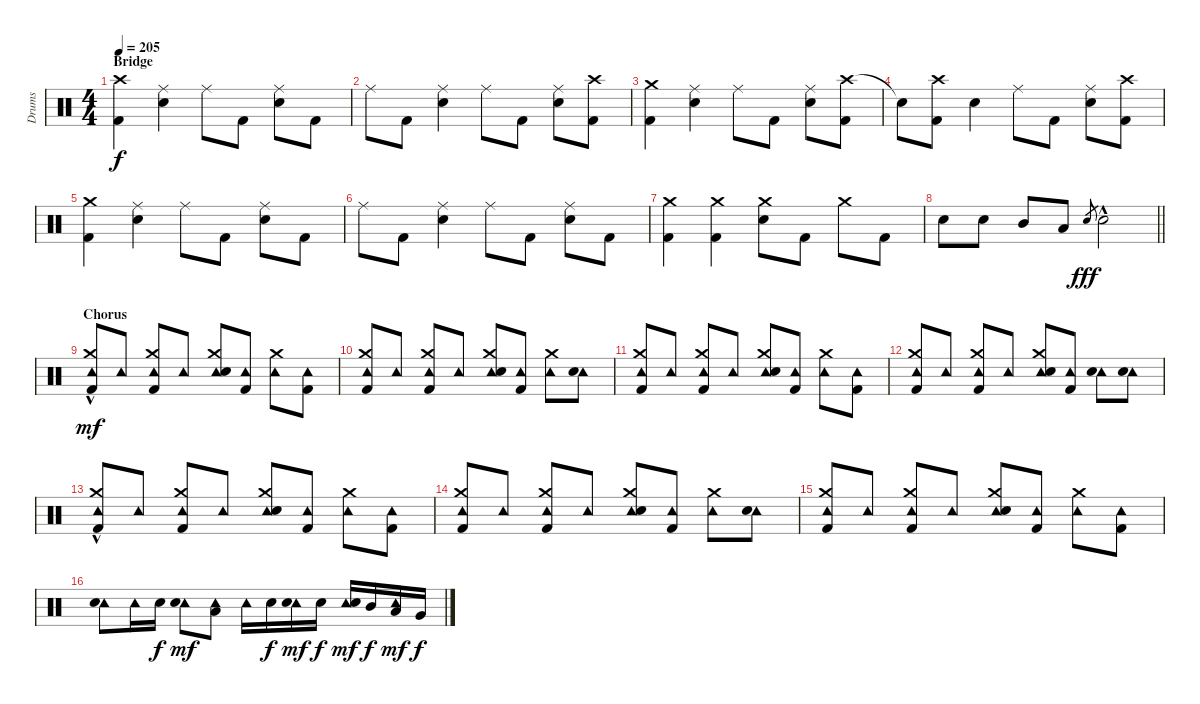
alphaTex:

\track ("Drums" "Drums") {instrument percussion}
\staff {score}
\articulation defaults
\ts (4 4)
\section ("" "Bridge")
\tempo 205
\clef neutral
\ks c
("Crash high (hit)" "Kick (hit) 2").4{dy f} ("Ride (middle)" "Electric Snare (hit)").4 "Ride (middle)".8 "Kick (hit) 2".8 ("Ride (middle)" "Electric Snare (hit)").8 "Kick (hit) 2".8 |
"Ride (middle)".8 "Kick (hit) 2".8 ("Ride (middle)" "Electric Snare (hit)").4 "Ride (middle)".8 "Kick (hit) 2".8 ("Ride (middle)" "Electric Snare (hit)").8 ("Crash high (hit)" "Kick (hit) 2").8 |
("Crash medium (hit)" "Kick (hit) 2").4 ("Ride (middle)" "Electric Snare (hit)").4 "Ride (middle)".8 "Kick (hit) 2".8 ("Ride (middle)" "Electric Snare (hit)").8 ("Crash high (hit)" "Kick (hit) 2").8 |
"Snare (hit)"{t}.8 ("Crash high (hit)" "Kick (hit) 2").8 "Electric Snare (hit)".4 "Ride (middle)".8 "Kick (hit) 2".8 ("Ride (middle)" "Electric Snare (hit)").8 ("Crash high (hit)" "Kick (hit) 2").8 |
("Crash medium (hit)" "Kick (hit) 2").4 ("Ride (middle)" "Electric Snare (hit)").4 "Ride (middle)".8 "Kick (hit) 2".8 ("Ride (middle)" "Electric Snare (hit)").8 "Kick (hit) 2".8 |
"Ride (middle)".8 "Kick (hit) 2".8 ("Ride (middle)" "Electric Snare (hit)").4 "Ride (middle)".8 "Kick (hit) 2".8 ("Ride (middle)" "Electric Snare (hit)").8 "Kick (hit) 2".8 |
("Crash medium (hit)" "Kick (hit) 2").4 ("Crash medium (hit)" "Kick (hit) 2").4 ("Crash medium (hit)" "Electric Snare (hit)").8 "Kick (hit) 2".8 "Crash medium (hit)".8 "Kick (hit) 2".8 |
\barLineRight lightlight "Electric Snare (hit)".8 "Electric Snare (hit)".8 "Mid Tom (hit)".8 "Low Tom (hit)".8 "Electric Snare (hit)".8{gr dy fff} "Electric Snare (hit)"{hac}.2
|
\section ("" "Chorus")
("Crash medium (hit)"{hac} "Tambourine (hit)" "Kick (hit) 2").8{dy mf} "Tambourine (hit)".8 ("Crash medium (hit)" "Tambourine (hit)" "Kick (hit) 2").8 "Tambourine (hit)".8 ("Crash medium (hit)" "Tambourine (hit)" "Electric Snare (hit)").8 ("Tambourine (hit)" "Kick (hit) 2").8 ("Crash medium (hit)" "Tambourine (hit)").8 ("Tambourine (hit)" "Kick (hit) 2").8 |
("Crash medium (hit)" "Tambourine (hit)" "Kick (hit) 2").8 "Tambourine (hit)".8 ("Crash medium (hit)" "Tambourine (hit)" "Kick (hit) 2").8 "Tambourine (hit)".8 ("Crash medium (hit)" "Tambourine (hit)" "Electric Snare (hit)").8 ("Tambourine (hit)" "Kick (hit) 2").8 ("Crash medium (hit)" "Tambourine (hit)").8 ("Tambourine (hit)" "Electric Snare (hit)").8 |
("Crash medium (hit)" "Tambourine (hit)" "Kick (hit) 2").8 "Tambourine (hit)".8 ("Crash medium (hit)" "Tambourine (hit)" "Kick (hit) 2").8 "Tambourine (hit)".8 ("Crash medium (hit)" "Tambourine (hit)" "Electric Snare (hit)").8 ("Tambourine (hit)" "Kick (hit) 2").8 ("Crash medium (hit)" "Tambourine (hit)").8 ("Tambourine (hit)" "Kick (hit) 2").8 |
("Crash medium (hit)" "Tambourine (hit)" "Kick (hit) 2").8 "Tambourine (hit)".8 ("Crash medium (hit)" "Tambourine (hit)" "Kick (hit) 2").8 "Tambourine (hit)".8 ("Crash medium (hit)" "Tambourine (hit)" "Electric Snare (hit)").8 ("Tambourine (hit)" "Kick (hit) 2").8 ("Tambourine (hit)" "Electric Snare (hit)").8 ("Tambourine (hit)" "Electric Snare (hit)").8 |
("Crash medium (hit)"{hac} "Tambourine (hit)" "Kick (hit) 2").8 "Tambourine (hit)".8 ("Crash medium (hit)" "Tambourine (hit)" "Kick (hit) 2").8 "Tambourine (hit)".8 ("Crash medium (hit)" "Tambourine (hit)" "Electric Snare (hit)").8 ("Tambourine (hit)" "Kick (hit) 2").8 ("Crash medium (hit)" "Tambourine (hit)").8 ("Tambourine (hit)" "Kick (hit) 2").8 |
("Crash medium (hit)" "Tambourine (hit)" "Kick (hit) 2").8 "Tambourine (hit)".8 ("Crash medium (hit)" "Tambourine (hit)" "Kick (hit) 2").8 "Tambourine (hit)".8 ("Crash medium (hit)" "Tambourine (hit)" "Electric Snare (hit)").8 ("Tambourine (hit)" "Kick (hit) 2").8 ("Crash medium (hit)" "Tambourine (hit)").8 ("Tambourine (hit)" "Electric Snare (hit)").8 |
("Crash medium (hit)" "Tambourine (hit)" "Kick (hit) 2").8 "Tambourine (hit)".8 ("Crash medium (hit)" "Tambourine (hit)" "Kick (hit) 2").8 "Tambourine (hit)".8 ("Crash medium (hit)" "Tambourine (hit)" "Electric Snare (hit)").8 ("Tambourine (hit)" "Kick (hit) 2").8 ("Crash medium (hit)" "Tambourine (hit)").8 ("Tambourine (hit)" "Kick (hit) 2").8 |
("Tambourine (hit)" "Electric Snare (hit)").8 "Tambourine (hit)".16 "Electric Snare (hit)".16{dy f} ("Tambourine (hit)" "Electric Snare (hit)").8{dy mf} ("Tambourine (hit)" "Low Tom (hit)").8 "Tambourine (hit)".16 "Electric Snare (hit)".16{dy f} ("Tambourine (hit)" "Electric Snare (hit)").16{dy mf} "Electric Snare (hit)".16{dy f} ("Tambourine (hit)" "Electric Snare (hit)").16{dy mf} "Mid Tom (hit)".16{dy f} ("Tambourine (hit)" "Low Tom (hit)").16{dy mf} "Very Low Tom (hit)".16{dy f}
